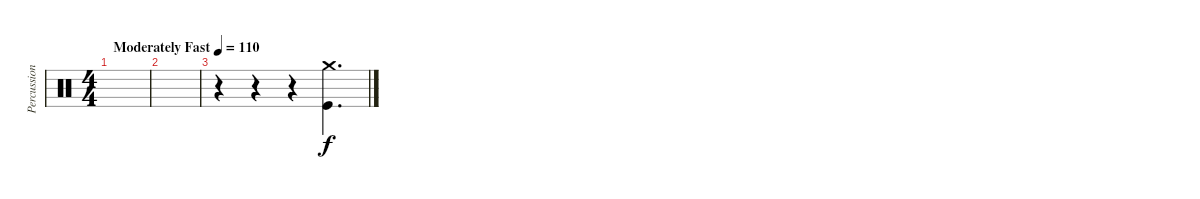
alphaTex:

\track ("Percussion" "Percussion") {instrument percussion}
\staff {score}
\articulation defaults
\ts (4 4)
\tempo (110 "Moderately Fast")
\clef neutral
\ks c
|
|
r.4 r.4 r.4 ("Crash medium (hit)" "Kick (hit)").4{d}
